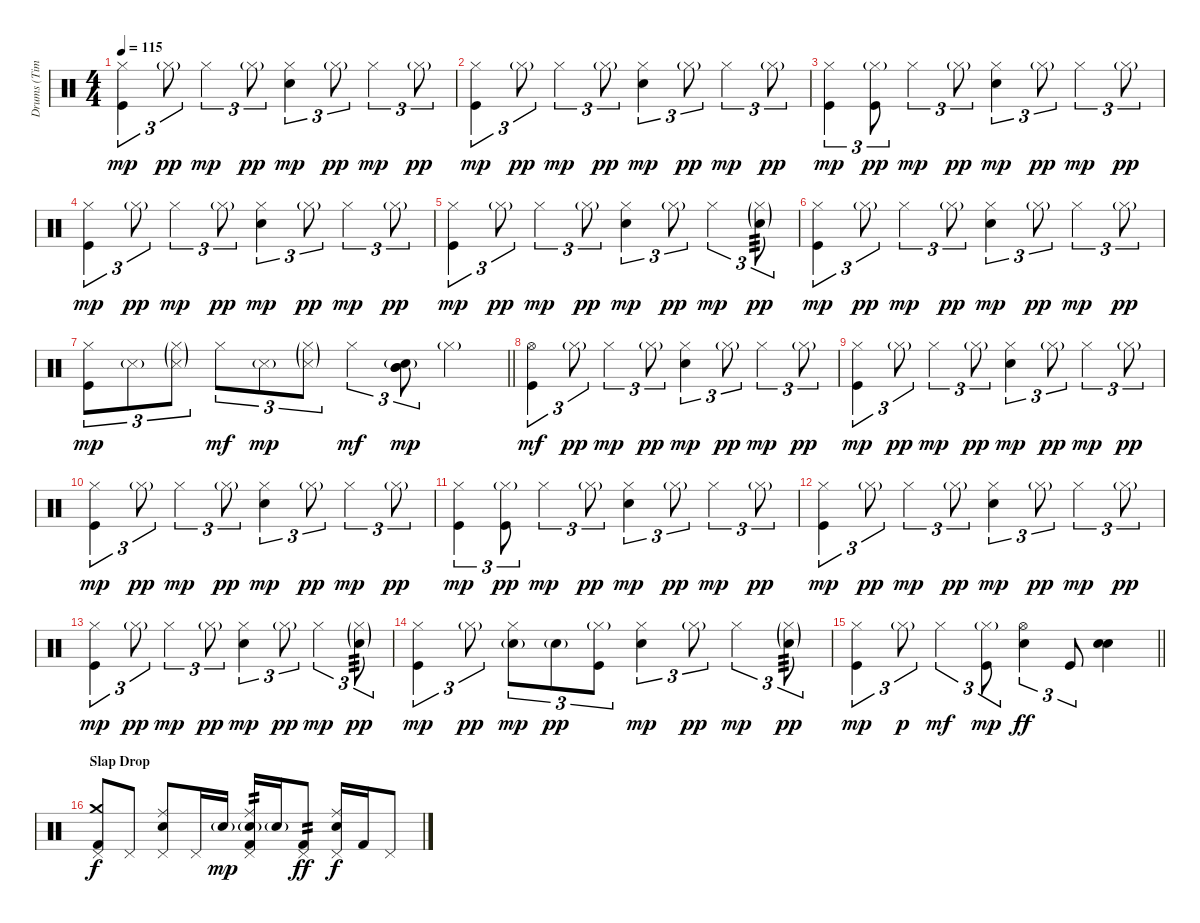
\track ("Drums (Tim Alexander)" "Drums (Tim") {instrument percussion}
\staff {score}
\articulation defaults
\ts (4 4)
\tempo 115
\clef neutral
\ks c
("Hi-Hat (closed)" "Kick (hit)").4{tu (3 2) dy mp} "Hi-Hat (closed)"{g}.8{tu (3 2) dy pp} "Hi-Hat (closed)".4{tu (3 2) dy mp} "Hi-Hat (closed)"{g}.8{tu (3 2) dy pp} ("Hi-Hat (closed)" "Electric Snare (hit)").4{tu (3 2) dy mp} "Hi-Hat (closed)"{g}.8{tu (3 2) dy pp} "Hi-Hat (closed)".4{tu (3 2) dy mp} "Hi-Hat (closed)"{g}.8{tu (3 2) dy pp} |
("Hi-Hat (closed)" "Kick (hit)").4{tu (3 2) dy mp} "Hi-Hat (closed)"{g}.8{tu (3 2) dy pp} "Hi-Hat (closed)".4{tu (3 2) dy mp} "Hi-Hat (closed)"{g}.8{tu (3 2) dy pp} ("Hi-Hat (closed)" "Electric Snare (hit)").4{tu (3 2) dy mp} "Hi-Hat (closed)"{g}.8{tu (3 2) dy pp} "Hi-Hat (closed)".4{tu (3 2) dy mp} "Hi-Hat (closed)"{g}.8{tu (3 2) dy pp} |
("Hi-Hat (closed)" "Kick (hit)").4{tu (3 2) dy mp} ("Hi-Hat (closed)"{g} "Kick (hit)").8{tu (3 2) dy pp} "Hi-Hat (closed)".4{tu (3 2) dy mp} "Hi-Hat (closed)"{g}.8{tu (3 2) dy pp} ("Hi-Hat (closed)" "Electric Snare (hit)").4{tu (3 2) dy mp} "Hi-Hat (closed)"{g}.8{tu (3 2) dy pp} "Hi-Hat (closed)".4{tu (3 2) dy mp} "Hi-Hat (closed)"{g}.8{tu (3 2) dy pp} |
("Hi-Hat (closed)" "Kick (hit)").4{tu (3 2) dy mp} "Hi-Hat (closed)"{g}.8{tu (3 2) dy pp} "Hi-Hat (closed)".4{tu (3 2) dy mp} "Hi-Hat (closed)"{g}.8{tu (3 2) dy pp} ("Hi-Hat (closed)" "Electric Snare (hit)").4{tu (3 2) dy mp} "Hi-Hat (closed)"{g}.8{tu (3 2) dy pp} "Hi-Hat (closed)".4{tu (3 2) dy mp} "Hi-Hat (closed)"{g}.8{tu (3 2) dy pp} |
("Hi-Hat (closed)" "Kick (hit)").4{tu (3 2) dy mp} "Hi-Hat (closed)"{g}.8{tu (3 2) dy pp} "Hi-Hat (closed)".4{tu (3 2) dy mp} "Hi-Hat (closed)"{g}.8{tu (3 2) dy pp} ("Hi-Hat (closed)" "Electric Snare (hit)").4{tu (3 2) dy mp} "Hi-Hat (closed)"{g}.8{tu (3 2) dy pp} "Hi-Hat (closed)".4{tu (3 2) dy mp} ("Hi-Hat (closed)"{g} "Electric Snare (hit)"{g}).8{tu (3 2) tp 3 dy pp} |
("Hi-Hat (closed)" "Kick (hit)").4{tu (3 2) dy mp} "Hi-Hat (closed)"{g}.8{tu (3 2) dy pp} "Hi-Hat (closed)".4{tu (3 2) dy mp} "Hi-Hat (closed)"{g}.8{tu (3 2) dy pp} ("Hi-Hat (closed)" "Electric Snare (hit)").4{tu (3 2) dy mp} "Hi-Hat (closed)"{g}.8{tu (3 2) dy pp} "Hi-Hat (closed)".4{tu (3 2) dy mp} "Hi-Hat (closed)"{g}.8{tu (3 2) dy pp} |
\barLineRight lightlight
("Hi-Hat (closed)" "Kick (hit)").8{tu (3 2) dy mp} "Snare (side stick) 3"{g}.8{tu (3 2)} ("Hi-Hat (closed)"{g} "Snare (side stick) 3"{g}).8{tu (3 2)} "Hi-Hat (closed)".8{tu (3 2) dy mf} "Snare (side stick) 3"{g}.8{tu (3 2) dy mp} ("Hi-Hat (closed)"{g} "Snare (side stick) 3"{g}).8{tu (3 2)} "Hi-Hat (closed)".4{tu (3 2) dy mf} ("Mid Tom (hit)" "Mid Tom (hit)" "Electric Snare (hit)"{g}).8{tu (3 2) bd 60 dy mp} "Hi-Hat (closed)"{g}.4 |
("Hi-Hat (open)" "Kick (hit)").4{tu (3 2) dy mf} "Hi-Hat (closed)"{g}.8{tu (3 2) dy pp volume 8} "Hi-Hat (closed)".4{tu (3 2) dy mp} "Hi-Hat (closed)"{g}.8{tu (3 2) dy pp} ("Hi-Hat (closed)" "Electric Snare (hit)").4{tu (3 2) dy mp} "Hi-Hat (closed)"{g}.8{tu (3 2) dy pp} "Hi-Hat (closed)".4{tu (3 2) dy mp} "Hi-Hat (closed)"{g}.8{tu (3 2) dy pp} |
("Hi-Hat (closed)" "Kick (hit)").4{tu (3 2) dy mp volume 9} "Hi-Hat (closed)"{g}.8{tu (3 2) dy pp} "Hi-Hat (closed)".4{tu (3 2) dy mp} "Hi-Hat (closed)"{g}.8{tu (3 2) dy pp} ("Hi-Hat (closed)" "Electric Snare (hit)").4{tu (3 2) dy mp} "Hi-Hat (closed)"{g}.8{tu (3 2) dy pp} "Hi-Hat (closed)".4{tu (3 2) dy mp} "Hi-Hat (closed)"{g}.8{tu (3 2) dy pp} |
("Hi-Hat (closed)" "Kick (hit)").4{tu (3 2) dy mp volume 10} "Hi-Hat (closed)"{g}.8{tu (3 2) dy pp} "Hi-Hat (closed)".4{tu (3 2) dy mp} "Hi-Hat (closed)"{g}.8{tu (3 2) dy pp} ("Hi-Hat (closed)" "Electric Snare (hit)").4{tu (3 2) dy mp} "Hi-Hat (closed)"{g}.8{tu (3 2) dy pp} "Hi-Hat (closed)".4{tu (3 2) dy mp} "Hi-Hat (closed)"{g}.8{tu (3 2) dy pp} |
("Hi-Hat (closed)" "Kick (hit)").4{tu (3 2) dy mp volume 11} ("Hi-Hat (closed)"{g} "Kick (hit)").8{tu (3 2) dy pp} "Hi-Hat (closed)".4{tu (3 2) dy mp} "Hi-Hat (closed)"{g}.8{tu (3 2) dy pp} ("Hi-Hat (closed)" "Electric Snare (hit)").4{tu (3 2) dy mp} "Hi-Hat (closed)"{g}.8{tu (3 2) dy pp} "Hi-Hat (closed)".4{tu (3 2) dy mp} "Hi-Hat (closed)"{g}.8{tu (3 2) dy pp} |
("Hi-Hat (closed)" "Kick (hit)").4{tu (3 2) dy mp} "Hi-Hat (closed)"{g}.8{tu (3 2) dy pp} "Hi-Hat (closed)".4{tu (3 2) dy mp} "Hi-Hat (closed)"{g}.8{tu (3 2) dy pp} ("Hi-Hat (closed)" "Electric Snare (hit)").4{tu (3 2) dy mp} "Hi-Hat (closed)"{g}.8{tu (3 2) dy pp} "Hi-Hat (closed)".4{tu (3 2) dy mp} "Hi-Hat (closed)"{g}.8{tu (3 2) dy pp} |
("Hi-Hat (closed)" "Kick (hit)").4{tu (3 2) dy mp volume 12} "Hi-Hat (closed)"{g}.8{tu (3 2) dy pp} "Hi-Hat (closed)".4{tu (3 2) dy mp} "Hi-Hat (closed)"{g}.8{tu (3 2) dy pp} ("Hi-Hat (closed)" "Electric Snare (hit)").4{tu (3 2) dy mp} "Hi-Hat (closed)"{g}.8{tu (3 2) dy pp} "Hi-Hat (closed)".4{tu (3 2) dy mp} ("Hi-Hat (closed)"{g} "Electric Snare (hit)"{g}).8{tu (3 2) tp 3 dy pp} |
("Hi-Hat (closed)" "Kick (hit)").4{tu (3 2) dy mp volume 13} "Hi-Hat (closed)"{g}.8{tu (3 2) dy pp} ("Hi-Hat (closed)" "Electric Snare (hit)"{g}).8{tu (3 2) dy mp} "Electric Snare (hit)"{g}.8{tu (3 2) dy pp} ("Hi-Hat (closed)"{g} "Kick (hit)").8{tu (3 2)} ("Hi-Hat (closed)" "Electric Snare (hit)").4{tu (3 2) dy mp} "Hi-Hat (closed)"{g}.8{tu (3 2) dy pp} "Hi-Hat (closed)".4{tu (3 2) dy mp} ("Hi-Hat (closed)"{g} "Electric Snare (hit)"{g}).8{tu (3 2) tp 3 dy pp} |
\barLineRight lightlight
("Hi-Hat (closed)" "Kick (hit)").4{tu (3 2) dy mp} "Hi-Hat (closed)"{g}.8{tu (3 2) dy p} "Hi-Hat (closed)".4{tu (3 2) dy mf} ("Hi-Hat (closed)"{g} "Kick (hit)").8{tu (3 2) dy mp} ("Hi-Hat (open)" "Electric Snare (hit)").4{tu (3 2) dy ff} "Kick (hit)".8{tu (3 2)} ("Electric Snare (hit)" "Electric Snare (hit)").4{bd 60} |
\section ("" "Slap Drop")
("Pedal Hi-Hat (hit)" "Crash medium (hit)" "Kick (hit) 2").8{dy f volume 14} "Pedal Hi-Hat (hit)".8 ("Pedal Hi-Hat (hit)" "Ride (middle)" "Electric Snare (hit)").8 "Pedal Hi-Hat (hit)".16 "Electric Snare (hit)"{g}.16{dy mp} ("Pedal Hi-Hat (hit)" "Ride (middle)" "Electric Snare (hit)"{g} "Kick (hit) 2").16{tp 2} "Electric Snare (hit)"{g}.16 ("Pedal Hi-Hat (hit)" "Kick (hit) 2").8{tp 2 dy ff} ("Pedal Hi-Hat (hit)" "Ride (middle)" "Electric Snare (hit)").16{dy f} "Kick (hit) 2".16 "Pedal Hi-Hat (hit)".8
